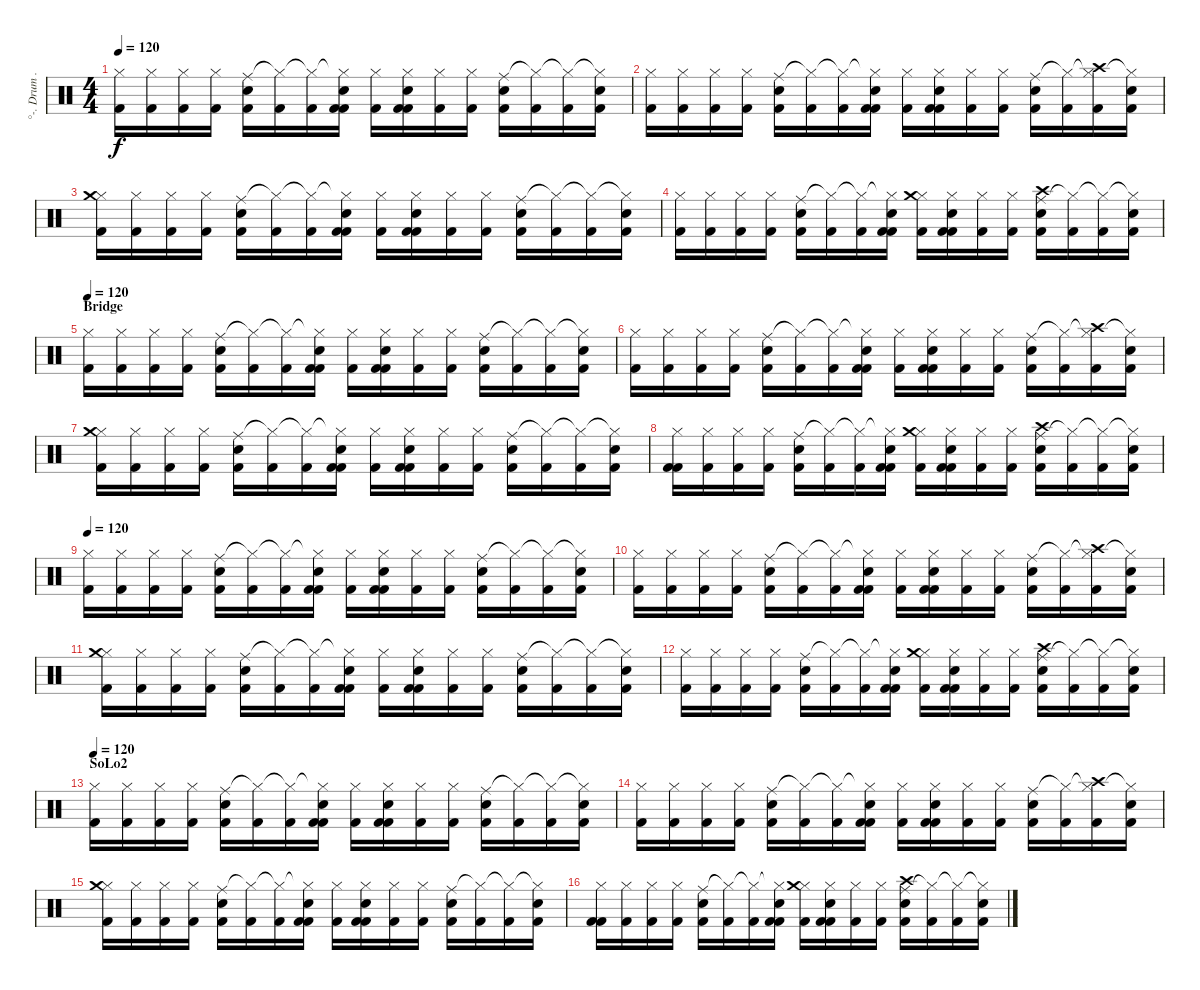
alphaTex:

\track ("°-. Drum .-°" "°-. Drum .") {instrument percussion}
\staff {score}
\articulation defaults
\ts (4 4)
\tempo 120
\clef neutral
\ks c
("Hi-Hat (closed)" "Kick (hit) 2").16{dy f} ("Hi-Hat (closed)" "Kick (hit) 2").16 ("Hi-Hat (closed)" "Kick (hit) 2").16 ("Hi-Hat (closed)" "Kick (hit) 2").16 ("Ride (middle)" "Kick (hit) 2" "Electric Snare (hit)").16 ("Hi-Hat (closed)"{t} "Kick (hit) 2").16 ("Hi-Hat (closed)"{t} "Kick (hit) 2").16 ("Hi-Hat (closed)"{t} "Kick (hit) 2" "Kick (hit) 2" "Electric Snare (hit)").16 ("Hi-Hat (closed)" "Kick (hit) 2").16 ("Hi-Hat (closed)" "Kick (hit) 2" "Kick (hit) 2" "Electric Snare (hit)").16 ("Hi-Hat (closed)" "Kick (hit) 2").16 ("Hi-Hat (closed)" "Kick (hit) 2").16 ("Ride (middle)" "Kick (hit) 2" "Electric Snare (hit)").16 ("Hi-Hat (closed)"{t} "Kick (hit) 2").16 ("Hi-Hat (closed)"{t} "Kick (hit) 2").16 ("Hi-Hat (closed)"{t} "Kick (hit) 2" "Electric Snare (hit)").16 |
("Hi-Hat (closed)" "Kick (hit) 2").16 ("Hi-Hat (closed)" "Kick (hit) 2").16 ("Hi-Hat (closed)" "Kick (hit) 2").16 ("Hi-Hat (closed)" "Kick (hit) 2").16 ("Ride (middle)" "Kick (hit) 2" "Electric Snare (hit)").16 ("Hi-Hat (closed)"{t} "Kick (hit) 2").16 ("Hi-Hat (closed)"{t} "Kick (hit) 2").16 ("Hi-Hat (closed)"{t} "Kick (hit) 2" "Kick (hit) 2" "Electric Snare (hit)").16 ("Hi-Hat (closed)" "Kick (hit) 2").16 ("Hi-Hat (closed)" "Kick (hit) 2" "Kick (hit) 2" "Electric Snare (hit)").16 ("Hi-Hat (closed)" "Kick (hit) 2").16 ("Hi-Hat (closed)" "Kick (hit) 2").16 ("Ride (middle)" "Kick (hit) 2" "Electric Snare (hit)").16 ("Hi-Hat (closed)"{t} "Kick (hit) 2").16 ("Hi-Hat (closed)"{t} "Crash high (hit)" "Kick (hit) 2").16 ("Hi-Hat (closed)"{t} "Kick (hit) 2" "Electric Snare (hit)").16 |
("Hi-Hat (closed)" "Crash medium (hit)" "Kick (hit) 2").16 ("Hi-Hat (closed)" "Kick (hit) 2").16 ("Hi-Hat (closed)" "Kick (hit) 2").16 ("Hi-Hat (closed)" "Kick (hit) 2").16 ("Ride (middle)" "Kick (hit) 2" "Electric Snare (hit)").16 ("Hi-Hat (closed)"{t} "Kick (hit) 2").16 ("Hi-Hat (closed)"{t} "Kick (hit) 2").16 ("Hi-Hat (closed)"{t} "Kick (hit) 2" "Kick (hit) 2" "Electric Snare (hit)").16 ("Hi-Hat (closed)" "Kick (hit) 2").16 ("Hi-Hat (closed)" "Kick (hit) 2" "Kick (hit) 2" "Electric Snare (hit)").16 ("Hi-Hat (closed)" "Kick (hit) 2").16 ("Hi-Hat (closed)" "Kick (hit) 2").16 ("Ride (middle)" "Kick (hit) 2" "Electric Snare (hit)").16 ("Hi-Hat (closed)"{t} "Kick (hit) 2").16 ("Hi-Hat (closed)"{t} "Kick (hit) 2").16 ("Hi-Hat (closed)"{t} "Kick (hit) 2" "Electric Snare (hit)").16 |
("Hi-Hat (closed)" "Kick (hit) 2").16 ("Hi-Hat (closed)" "Kick (hit) 2").16 ("Hi-Hat (closed)" "Kick (hit) 2").16 ("Hi-Hat (closed)" "Kick (hit) 2").16 ("Ride (middle)" "Kick (hit) 2" "Electric Snare (hit)").16 ("Hi-Hat (closed)"{t} "Kick (hit) 2").16 ("Hi-Hat (closed)"{t} "Kick (hit) 2").16 ("Hi-Hat (closed)"{t} "Kick (hit) 2" "Kick (hit) 2" "Electric Snare (hit)").16 ("Hi-Hat (closed)" "Crash medium (hit)" "Kick (hit) 2").16 ("Hi-Hat (closed)" "Kick (hit) 2" "Kick (hit) 2" "Electric Snare (hit)").16 ("Hi-Hat (closed)" "Kick (hit) 2").16 ("Hi-Hat (closed)" "Kick (hit) 2").16 ("Ride (middle)" "Crash high (hit)" "Kick (hit) 2" "Electric Snare (hit)").16 ("Hi-Hat (closed)"{t} "Kick (hit) 2").16 ("Hi-Hat (closed)"{t} "Kick (hit) 2").16 ("Hi-Hat (closed)"{t} "Kick (hit) 2" "Electric Snare (hit)").16 |
\section ("" "Bridge")
\tempo 120
("Hi-Hat (closed)" "Kick (hit) 2").16 ("Hi-Hat (closed)" "Kick (hit) 2").16 ("Hi-Hat (closed)" "Kick (hit) 2").16 ("Hi-Hat (closed)" "Kick (hit) 2").16 ("Ride (middle)" "Kick (hit) 2" "Electric Snare (hit)").16 ("Hi-Hat (closed)"{t} "Kick (hit) 2").16 ("Hi-Hat (closed)"{t} "Kick (hit) 2").16 ("Hi-Hat (closed)"{t} "Kick (hit) 2" "Kick (hit) 2" "Electric Snare (hit)").16 ("Hi-Hat (closed)" "Kick (hit) 2").16 ("Hi-Hat (closed)" "Kick (hit) 2" "Kick (hit) 2" "Electric Snare (hit)").16 ("Hi-Hat (closed)" "Kick (hit) 2").16 ("Hi-Hat (closed)" "Kick (hit) 2").16 ("Ride (middle)" "Kick (hit) 2" "Electric Snare (hit)").16 ("Hi-Hat (closed)"{t} "Kick (hit) 2").16 ("Hi-Hat (closed)"{t} "Kick (hit) 2").16 ("Hi-Hat (closed)"{t} "Kick (hit) 2" "Electric Snare (hit)").16 |
("Hi-Hat (closed)" "Kick (hit) 2").16 ("Hi-Hat (closed)" "Kick (hit) 2").16 ("Hi-Hat (closed)" "Kick (hit) 2").16 ("Hi-Hat (closed)" "Kick (hit) 2").16 ("Ride (middle)" "Kick (hit) 2" "Electric Snare (hit)").16 ("Hi-Hat (closed)"{t} "Kick (hit) 2").16 ("Hi-Hat (closed)"{t} "Kick (hit) 2").16 ("Hi-Hat (closed)"{t} "Kick (hit) 2" "Kick (hit) 2" "Electric Snare (hit)").16 ("Hi-Hat (closed)" "Kick (hit) 2").16 ("Hi-Hat (closed)" "Kick (hit) 2" "Kick (hit) 2" "Electric Snare (hit)").16 ("Hi-Hat (closed)" "Kick (hit) 2").16 ("Hi-Hat (closed)" "Kick (hit) 2").16 ("Ride (middle)" "Kick (hit) 2" "Electric Snare (hit)").16 ("Hi-Hat (closed)"{t} "Kick (hit) 2").16 ("Hi-Hat (closed)"{t} "Crash high (hit)" "Kick (hit) 2").16 ("Hi-Hat (closed)"{t} "Kick (hit) 2" "Electric Snare (hit)").16 |
("Hi-Hat (closed)" "Crash medium (hit)" "Kick (hit) 2").16 ("Hi-Hat (closed)" "Kick (hit) 2").16 ("Hi-Hat (closed)" "Kick (hit) 2").16 ("Hi-Hat (closed)" "Kick (hit) 2").16 ("Ride (middle)" "Kick (hit) 2" "Electric Snare (hit)").16 ("Hi-Hat (closed)"{t} "Kick (hit) 2").16 ("Hi-Hat (closed)"{t} "Kick (hit) 2").16 ("Hi-Hat (closed)"{t} "Kick (hit) 2" "Kick (hit) 2" "Electric Snare (hit)").16 ("Hi-Hat (closed)" "Kick (hit) 2").16 ("Hi-Hat (closed)" "Kick (hit) 2" "Kick (hit) 2" "Electric Snare (hit)").16 ("Hi-Hat (closed)" "Kick (hit) 2").16 ("Hi-Hat (closed)" "Kick (hit) 2").16 ("Ride (middle)" "Kick (hit) 2" "Electric Snare (hit)").16 ("Hi-Hat (closed)"{t} "Kick (hit) 2").16 ("Hi-Hat (closed)"{t} "Kick (hit) 2").16 ("Hi-Hat (closed)"{t} "Kick (hit) 2" "Electric Snare (hit)").16 |
("Hi-Hat (closed)" "Kick (hit) 2" "Kick (hit) 2").16 ("Hi-Hat (closed)" "Kick (hit) 2").16 ("Hi-Hat (closed)" "Kick (hit) 2").16 ("Hi-Hat (closed)" "Kick (hit) 2").16 ("Ride (middle)" "Kick (hit) 2" "Electric Snare (hit)").16 ("Hi-Hat (closed)"{t} "Kick (hit) 2").16 ("Hi-Hat (closed)"{t} "Kick (hit) 2").16 ("Hi-Hat (closed)"{t} "Kick (hit) 2" "Kick (hit) 2" "Electric Snare (hit)").16 ("Hi-Hat (closed)" "Crash medium (hit)" "Kick (hit) 2").16 ("Hi-Hat (closed)" "Kick (hit) 2" "Kick (hit) 2" "Electric Snare (hit)").16 ("Hi-Hat (closed)" "Kick (hit) 2").16 ("Hi-Hat (closed)" "Kick (hit) 2").16 ("Ride (middle)" "Crash high (hit)" "Kick (hit) 2" "Electric Snare (hit)").16 ("Hi-Hat (closed)"{t} "Kick (hit) 2").16 ("Hi-Hat (closed)"{t} "Kick (hit) 2").16 ("Hi-Hat (closed)"{t} "Kick (hit) 2" "Electric Snare (hit)").16 |
\tempo 120
("Hi-Hat (closed)" "Kick (hit) 2").16 ("Hi-Hat (closed)" "Kick (hit) 2").16 ("Hi-Hat (closed)" "Kick (hit) 2").16 ("Hi-Hat (closed)" "Kick (hit) 2").16 ("Ride (middle)" "Kick (hit) 2" "Electric Snare (hit)").16 ("Hi-Hat (closed)"{t} "Kick (hit) 2").16 ("Hi-Hat (closed)"{t} "Kick (hit) 2").16 ("Hi-Hat (closed)"{t} "Kick (hit) 2" "Kick (hit) 2" "Electric Snare (hit)").16 ("Hi-Hat (closed)" "Kick (hit) 2").16 ("Hi-Hat (closed)" "Kick (hit) 2" "Kick (hit) 2" "Electric Snare (hit)").16 ("Hi-Hat (closed)" "Kick (hit) 2").16 ("Hi-Hat (closed)" "Kick (hit) 2").16 ("Ride (middle)" "Kick (hit) 2" "Electric Snare (hit)").16 ("Hi-Hat (closed)"{t} "Kick (hit) 2").16 ("Hi-Hat (closed)"{t} "Kick (hit) 2").16 ("Hi-Hat (closed)"{t} "Kick (hit) 2" "Electric Snare (hit)").16 |
("Hi-Hat (closed)" "Kick (hit) 2").16 ("Hi-Hat (closed)" "Kick (hit) 2").16 ("Hi-Hat (closed)" "Kick (hit) 2").16 ("Hi-Hat (closed)" "Kick (hit) 2").16 ("Ride (middle)" "Kick (hit) 2" "Electric Snare (hit)").16 ("Hi-Hat (closed)"{t} "Kick (hit) 2").16 ("Hi-Hat (closed)"{t} "Kick (hit) 2").16 ("Hi-Hat (closed)"{t} "Kick (hit) 2" "Kick (hit) 2" "Electric Snare (hit)").16 ("Hi-Hat (closed)" "Kick (hit) 2").16 ("Hi-Hat (closed)" "Kick (hit) 2" "Kick (hit) 2" "Electric Snare (hit)").16 ("Hi-Hat (closed)" "Kick (hit) 2").16 ("Hi-Hat (closed)" "Kick (hit) 2").16 ("Ride (middle)" "Kick (hit) 2" "Electric Snare (hit)").16 ("Hi-Hat (closed)"{t} "Kick (hit) 2").16 ("Hi-Hat (closed)"{t} "Crash high (hit)" "Kick (hit) 2").16 ("Hi-Hat (closed)"{t} "Kick (hit) 2" "Electric Snare (hit)").16 |
("Hi-Hat (closed)" "Crash medium (hit)" "Kick (hit) 2").16 ("Hi-Hat (closed)" "Kick (hit) 2").16 ("Hi-Hat (closed)" "Kick (hit) 2").16 ("Hi-Hat (closed)" "Kick (hit) 2").16 ("Ride (middle)" "Kick (hit) 2" "Electric Snare (hit)").16 ("Hi-Hat (closed)"{t} "Kick (hit) 2").16 ("Hi-Hat (closed)"{t} "Kick (hit) 2").16 ("Hi-Hat (closed)"{t} "Kick (hit) 2" "Kick (hit) 2" "Electric Snare (hit)").16 ("Hi-Hat (closed)" "Kick (hit) 2").16 ("Hi-Hat (closed)" "Kick (hit) 2" "Kick (hit) 2" "Electric Snare (hit)").16 ("Hi-Hat (closed)" "Kick (hit) 2").16 ("Hi-Hat (closed)" "Kick (hit) 2").16 ("Ride (middle)" "Kick (hit) 2" "Electric Snare (hit)").16 ("Hi-Hat (closed)"{t} "Kick (hit) 2").16 ("Hi-Hat (closed)"{t} "Kick (hit) 2").16 ("Hi-Hat (closed)"{t} "Kick (hit) 2" "Electric Snare (hit)").16 |
("Hi-Hat (closed)" "Kick (hit) 2").16 ("Hi-Hat (closed)" "Kick (hit) 2").16 ("Hi-Hat (closed)" "Kick (hit) 2").16 ("Hi-Hat (closed)" "Kick (hit) 2").16 ("Ride (middle)" "Kick (hit) 2" "Electric Snare (hit)").16 ("Hi-Hat (closed)"{t} "Kick (hit) 2").16 ("Hi-Hat (closed)"{t} "Kick (hit) 2").16 ("Hi-Hat (closed)"{t} "Kick (hit) 2" "Kick (hit) 2" "Electric Snare (hit)").16 ("Hi-Hat (closed)" "Crash medium (hit)" "Kick (hit) 2").16 ("Hi-Hat (closed)" "Kick (hit) 2" "Kick (hit) 2" "Electric Snare (hit)").16 ("Hi-Hat (closed)" "Kick (hit) 2").16 ("Hi-Hat (closed)" "Kick (hit) 2").16 ("Ride (middle)" "Crash high (hit)" "Kick (hit) 2" "Electric Snare (hit)").16 ("Hi-Hat (closed)"{t} "Kick (hit) 2").16 ("Hi-Hat (closed)"{t} "Kick (hit) 2").16 ("Hi-Hat (closed)"{t} "Kick (hit) 2" "Electric Snare (hit)").16 |
\section ("" "SoLo2")
\tempo 120
("Hi-Hat (closed)" "Kick (hit) 2").16 ("Hi-Hat (closed)" "Kick (hit) 2").16 ("Hi-Hat (closed)" "Kick (hit) 2").16 ("Hi-Hat (closed)" "Kick (hit) 2").16 ("Ride (middle)" "Kick (hit) 2" "Electric Snare (hit)").16 ("Hi-Hat (closed)"{t} "Kick (hit) 2").16 ("Hi-Hat (closed)"{t} "Kick (hit) 2").16 ("Hi-Hat (closed)"{t} "Kick (hit) 2" "Kick (hit) 2" "Electric Snare (hit)").16 ("Hi-Hat (closed)" "Kick (hit) 2").16 ("Hi-Hat (closed)" "Kick (hit) 2" "Kick (hit) 2" "Electric Snare (hit)").16 ("Hi-Hat (closed)" "Kick (hit) 2").16 ("Hi-Hat (closed)" "Kick (hit) 2").16 ("Ride (middle)" "Kick (hit) 2" "Electric Snare (hit)").16 ("Hi-Hat (closed)"{t} "Kick (hit) 2").16 ("Hi-Hat (closed)"{t} "Kick (hit) 2").16 ("Hi-Hat (closed)"{t} "Kick (hit) 2" "Electric Snare (hit)").16 |
("Hi-Hat (closed)" "Kick (hit) 2").16 ("Hi-Hat (closed)" "Kick (hit) 2").16 ("Hi-Hat (closed)" "Kick (hit) 2").16 ("Hi-Hat (closed)" "Kick (hit) 2").16 ("Ride (middle)" "Kick (hit) 2" "Electric Snare (hit)").16 ("Hi-Hat (closed)"{t} "Kick (hit) 2").16 ("Hi-Hat (closed)"{t} "Kick (hit) 2").16 ("Hi-Hat (closed)"{t} "Kick (hit) 2" "Kick (hit) 2" "Electric Snare (hit)").16 ("Hi-Hat (closed)" "Kick (hit) 2").16 ("Hi-Hat (closed)" "Kick (hit) 2" "Kick (hit) 2" "Electric Snare (hit)").16 ("Hi-Hat (closed)" "Kick (hit) 2").16 ("Hi-Hat (closed)" "Kick (hit) 2").16 ("Ride (middle)" "Kick (hit) 2" "Electric Snare (hit)").16 ("Hi-Hat (closed)"{t} "Kick (hit) 2").16 ("Hi-Hat (closed)"{t} "Crash high (hit)" "Kick (hit) 2").16 ("Hi-Hat (closed)"{t} "Kick (hit) 2" "Electric Snare (hit)").16 |
("Hi-Hat (closed)" "Crash medium (hit)" "Kick (hit) 2").16 ("Hi-Hat (closed)" "Kick (hit) 2").16 ("Hi-Hat (closed)" "Kick (hit) 2").16 ("Hi-Hat (closed)" "Kick (hit) 2").16 ("Ride (middle)" "Kick (hit) 2" "Electric Snare (hit)").16 ("Hi-Hat (closed)"{t} "Kick (hit) 2").16 ("Hi-Hat (closed)"{t} "Kick (hit) 2").16 ("Hi-Hat (closed)"{t} "Kick (hit) 2" "Kick (hit) 2" "Electric Snare (hit)").16 ("Hi-Hat (closed)" "Kick (hit) 2").16 ("Hi-Hat (closed)" "Kick (hit) 2" "Kick (hit) 2" "Electric Snare (hit)").16 ("Hi-Hat (closed)" "Kick (hit) 2").16 ("Hi-Hat (closed)" "Kick (hit) 2").16 ("Ride (middle)" "Kick (hit) 2" "Electric Snare (hit)").16 ("Hi-Hat (closed)"{t} "Kick (hit) 2").16 ("Hi-Hat (closed)"{t} "Kick (hit) 2").16 ("Hi-Hat (closed)"{t} "Kick (hit) 2" "Electric Snare (hit)").16 |
("Hi-Hat (closed)" "Kick (hit) 2" "Kick (hit) 2").16 ("Hi-Hat (closed)" "Kick (hit) 2").16 ("Hi-Hat (closed)" "Kick (hit) 2").16 ("Hi-Hat (closed)" "Kick (hit) 2").16 ("Ride (middle)" "Kick (hit) 2" "Electric Snare (hit)").16 ("Hi-Hat (closed)"{t} "Kick (hit) 2").16 ("Hi-Hat (closed)"{t} "Kick (hit) 2").16 ("Hi-Hat (closed)"{t} "Kick (hit) 2" "Kick (hit) 2" "Electric Snare (hit)").16 ("Hi-Hat (closed)" "Crash medium (hit)" "Kick (hit) 2").16 ("Hi-Hat (closed)" "Kick (hit) 2" "Kick (hit) 2" "Electric Snare (hit)").16 ("Hi-Hat (closed)" "Kick (hit) 2").16 ("Hi-Hat (closed)" "Kick (hit) 2").16 ("Ride (middle)" "Crash high (hit)" "Kick (hit) 2" "Electric Snare (hit)").16 ("Hi-Hat (closed)"{t} "Kick (hit) 2").16 ("Hi-Hat (closed)"{t} "Kick (hit) 2").16 ("Hi-Hat (closed)"{t} "Kick (hit) 2" "Electric Snare (hit)").16
